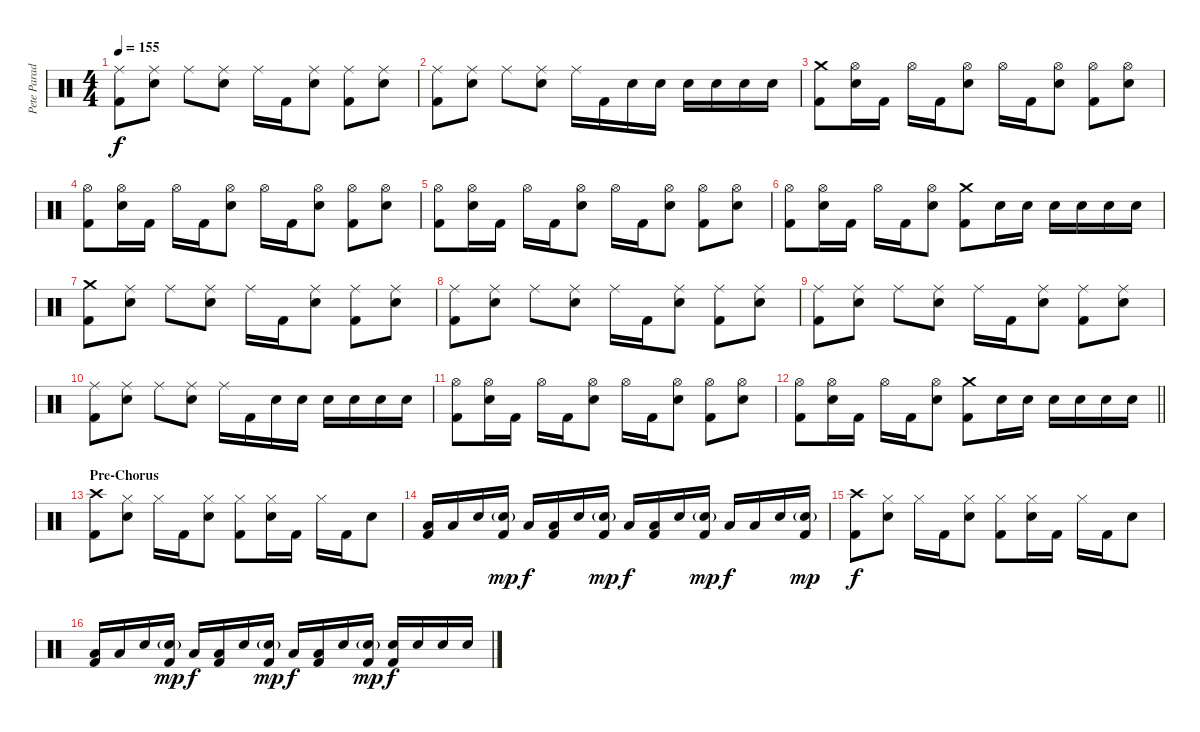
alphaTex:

\track ("Pete Parada - Drums" "Pete Parad") {instrument percussion}
\staff {score}
\articulation defaults
\ts (4 4)
\tempo 155
\clef neutral
\ks c
("Ride (middle)" "Kick (hit) 2").8{dy f} ("Ride (middle)" "Electric Snare (hit)").8 "Ride (middle)".8 ("Ride (middle)" "Electric Snare (hit)").8 "Ride (middle)".16 "Kick (hit) 2".16 ("Ride (middle)" "Electric Snare (hit)").8 ("Ride (middle)" "Kick (hit) 2").8 ("Ride (middle)" "Electric Snare (hit)").8 |
("Ride (middle)" "Kick (hit) 2").8 ("Ride (middle)" "Electric Snare (hit)").8 "Ride (middle)".8 ("Ride (middle)" "Electric Snare (hit)").8 "Ride (middle)".16 "Kick (hit) 2".16 "Electric Snare (hit)".16 "Electric Snare (hit)".16 "Electric Snare (hit)".16 "Electric Snare (hit)".16 "Electric Snare (hit)".16 "Electric Snare (hit)".16 |
("Crash medium (hit)" "Kick (hit) 2").8 ("Hi-Hat (open)" "Electric Snare (hit)").16 "Kick (hit) 2".16 "Hi-Hat (open)".16 "Kick (hit) 2".16 ("Hi-Hat (open)" "Electric Snare (hit)").8 "Hi-Hat (open)".16 "Kick (hit) 2".16 ("Hi-Hat (open)" "Electric Snare (hit)").8 ("Hi-Hat (open)" "Kick (hit) 2").8 ("Hi-Hat (open)" "Electric Snare (hit)").8 |
("Hi-Hat (open)" "Kick (hit) 2").8 ("Hi-Hat (open)" "Electric Snare (hit)").16 "Kick (hit) 2".16 "Hi-Hat (open)".16 "Kick (hit) 2".16 ("Hi-Hat (open)" "Electric Snare (hit)").8 "Hi-Hat (open)".16 "Kick (hit) 2".16 ("Hi-Hat (open)" "Electric Snare (hit)").8 ("Hi-Hat (open)" "Kick (hit) 2").8 ("Hi-Hat (open)" "Electric Snare (hit)").8 |
("Hi-Hat (open)" "Kick (hit) 2").8 ("Hi-Hat (open)" "Electric Snare (hit)").16 "Kick (hit) 2".16 "Hi-Hat (open)".16 "Kick (hit) 2".16 ("Hi-Hat (open)" "Electric Snare (hit)").8 "Hi-Hat (open)".16 "Kick (hit) 2".16 ("Hi-Hat (open)" "Electric Snare (hit)").8 ("Hi-Hat (open)" "Kick (hit) 2").8 ("Hi-Hat (open)" "Electric Snare (hit)").8 |
("Hi-Hat (open)" "Kick (hit) 2").8 ("Hi-Hat (open)" "Electric Snare (hit)").16 "Kick (hit) 2".16 "Hi-Hat (open)".16 "Kick (hit) 2".16 ("Hi-Hat (open)" "Electric Snare (hit)").8 ("Crash medium (hit)" "Kick (hit) 2").8 "Electric Snare (hit)".16 "Electric Snare (hit)".16 "Electric Snare (hit)".16 "Electric Snare (hit)".16 "Electric Snare (hit)".16 "Electric Snare (hit)".16 |
("Crash medium (hit)" "Kick (hit) 2").8 ("Ride (middle)" "Electric Snare (hit)").8 "Ride (middle)".8 ("Ride (middle)" "Electric Snare (hit)").8 "Ride (middle)".16 "Kick (hit) 2".16 ("Ride (middle)" "Electric Snare (hit)").8 ("Ride (middle)" "Kick (hit) 2").8 ("Ride (middle)" "Electric Snare (hit)").8 |
("Ride (middle)" "Kick (hit) 2").8 ("Ride (middle)" "Electric Snare (hit)").8 "Ride (middle)".8 ("Ride (middle)" "Electric Snare (hit)").8 "Ride (middle)".16 "Kick (hit) 2".16 ("Ride (middle)" "Electric Snare (hit)").8 ("Ride (middle)" "Kick (hit) 2").8 ("Ride (middle)" "Electric Snare (hit)").8 |
("Ride (middle)" "Kick (hit) 2").8 ("Ride (middle)" "Electric Snare (hit)").8 "Ride (middle)".8 ("Ride (middle)" "Electric Snare (hit)").8 "Ride (middle)".16 "Kick (hit) 2".16 ("Ride (middle)" "Electric Snare (hit)").8 ("Ride (middle)" "Kick (hit) 2").8 ("Ride (middle)" "Electric Snare (hit)").8 |
("Ride (middle)" "Kick (hit) 2").8 ("Ride (middle)" "Electric Snare (hit)").8 "Ride (middle)".8 ("Ride (middle)" "Electric Snare (hit)").8 "Ride (middle)".16 "Kick (hit) 2".16 "Electric Snare (hit)".16 "Electric Snare (hit)".16 "Electric Snare (hit)".16 "Electric Snare (hit)".16 "Electric Snare (hit)".16 "Electric Snare (hit)".16 |
("Hi-Hat (open)" "Kick (hit) 2").8 ("Hi-Hat (open)" "Electric Snare (hit)").16 "Kick (hit) 2".16 "Hi-Hat (open)".16 "Kick (hit) 2".16 ("Hi-Hat (open)" "Electric Snare (hit)").8 "Hi-Hat (open)".16 "Kick (hit) 2".16 ("Hi-Hat (open)" "Electric Snare (hit)").8 ("Hi-Hat (open)" "Kick (hit) 2").8 ("Hi-Hat (open)" "Electric Snare (hit)").8 |
\barLineRight lightlight
("Hi-Hat (open)" "Kick (hit) 2").8 ("Hi-Hat (open)" "Electric Snare (hit)").16 "Kick (hit) 2".16 "Hi-Hat (open)".16 "Kick (hit) 2".16 ("Hi-Hat (open)" "Electric Snare (hit)").8 ("Crash medium (hit)" "Kick (hit) 2").8 "Electric Snare (hit)".16 "Electric Snare (hit)".16 "Electric Snare (hit)".16 "Electric Snare (hit)".16 "Electric Snare (hit)".16 "Electric Snare (hit)".16 |
\section ("" "Pre-Chorus")
("Crash high (hit)" "Kick (hit) 2").8 ("Hi-Hat (closed)" "Electric Snare (hit)").8 "Hi-Hat (closed)".16 "Kick (hit) 2".16 ("Hi-Hat (closed)" "Electric Snare (hit)").8 ("Hi-Hat (closed)" "Kick (hit) 2").8 ("Hi-Hat (closed)" "Electric Snare (hit)").16 "Kick (hit) 2".16 "Hi-Hat (closed)".16 "Kick (hit) 2".16 "Electric Snare (hit)".8 |
("Low Tom (hit)" "Kick (hit) 2").16 "Low Tom (hit)".16 "Electric Snare (hit)".16 ("Electric Snare (hit)"{g} "Kick (hit) 2").16{dy mp} "Low Tom (hit)".16{dy f} ("Low Tom (hit)" "Kick (hit) 2").16 "Electric Snare (hit)".16 ("Electric Snare (hit)"{g} "Kick (hit) 2").16{dy mp} "Low Tom (hit)".16{dy f} ("Low Tom (hit)" "Kick (hit) 2").16 "Electric Snare (hit)".16 ("Electric Snare (hit)"{g} "Kick (hit) 2").16{dy mp} "Low Tom (hit)".16{dy f} "Low Tom (hit)".16 "Electric Snare (hit)".16 ("Electric Snare (hit)"{g} "Kick (hit) 2").16{dy mp} |
("Crash high (hit)" "Kick (hit) 2").8{dy f} ("Hi-Hat (closed)" "Electric Snare (hit)").8 "Hi-Hat (closed)".16 "Kick (hit) 2".16 ("Hi-Hat (closed)" "Electric Snare (hit)").8 ("Hi-Hat (closed)" "Kick (hit) 2").8 ("Hi-Hat (closed)" "Electric Snare (hit)").16 "Kick (hit) 2".16 "Hi-Hat (closed)".16 "Kick (hit) 2".16 "Electric Snare (hit)".8 |
("Low Tom (hit)" "Kick (hit) 2").16 "Low Tom (hit)".16 "Electric Snare (hit)".16 ("Electric Snare (hit)"{g} "Kick (hit) 2").16{dy mp} "Low Tom (hit)".16{dy f} ("Low Tom (hit)" "Kick (hit) 2").16 "Electric Snare (hit)".16 ("Electric Snare (hit)"{g} "Kick (hit) 2").16{dy mp} "Low Tom (hit)".16{dy f} ("Low Tom (hit)" "Kick (hit) 2").16 "Electric Snare (hit)".16 ("Electric Snare (hit)"{g} "Kick (hit) 2").16{dy mp} ("Electric Snare (hit)" "Kick (hit) 2").16{dy f} "Electric Snare (hit)".16 "Electric Snare (hit)".16 "Electric Snare (hit)".16
